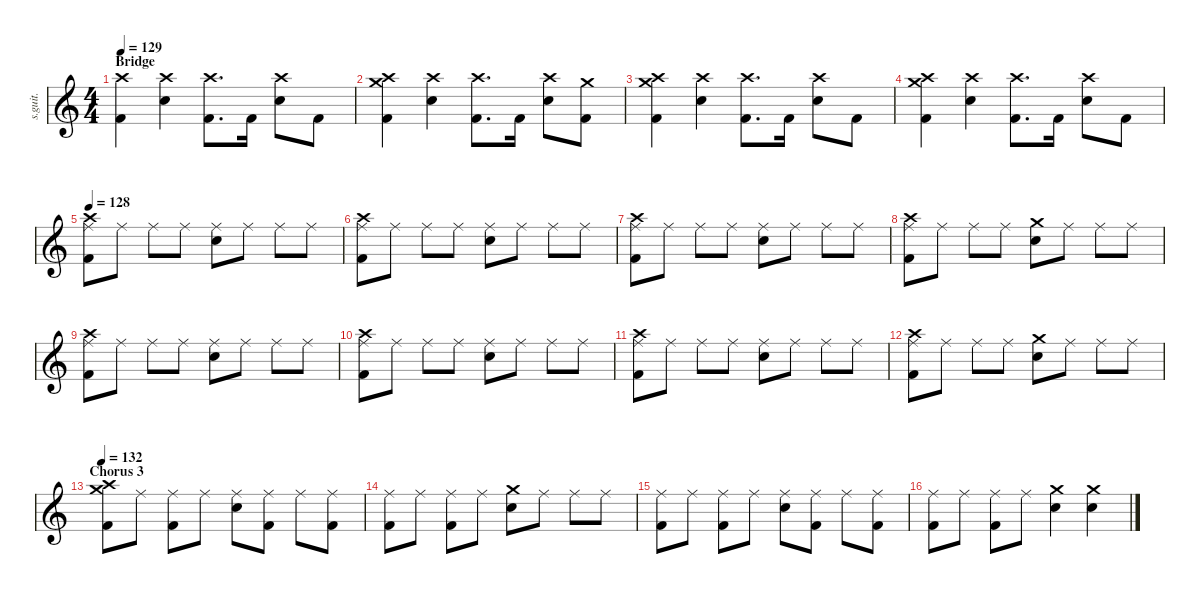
\defaultSystemsLayout 4
\hideDynamics
\bracketExtendMode nobrackets
\track ("John Dolmayan" "s.guit.") {instrument percussion}
\staff {score}
\articulation defaults
\ts (4 4)
\section ("" "Bridge")
\tempo 129
\clef g2
\ks c
("Crash high (hit)" "Kick (hit) 2").4{lyrics (0 "") lyrics (1 "") lyrics (2 "") lyrics (3 "") lyrics (4 "") dy f} ("Crash high (hit)" "Snare (hit) 2").4{lyrics (0 "") lyrics (1 "") lyrics (2 "") lyrics (3 "") lyrics (4 "")} ("Crash high (hit)" "Kick (hit) 2").8{d lyrics (0 "") lyrics (1 "") lyrics (2 "") lyrics (3 "") lyrics (4 "")} "Kick (hit) 2".16{lyrics (0 "") lyrics (1 "") lyrics (2 "") lyrics (3 "") lyrics (4 "")} ("Crash high (hit)" "Snare (hit) 2").8{lyrics (0 "") lyrics (1 "") lyrics (2 "") lyrics (3 "") lyrics (4 "")} "Kick (hit) 2".8{lyrics (0 "") lyrics (1 "") lyrics (2 "") lyrics (3 "") lyrics (4 "")} |
("Crash medium (hit)" "Crash high (hit)" "Kick (hit) 2").4{lyrics (0 "") lyrics (1 "") lyrics (2 "") lyrics (3 "") lyrics (4 "")} ("Crash high (hit)" "Snare (hit) 2").4{lyrics (0 "") lyrics (1 "") lyrics (2 "") lyrics (3 "") lyrics (4 "")} ("Crash high (hit)" "Kick (hit) 2").8{d lyrics (0 "") lyrics (1 "") lyrics (2 "") lyrics (3 "") lyrics (4 "")} "Kick (hit) 2".16{lyrics (0 "") lyrics (1 "") lyrics (2 "") lyrics (3 "") lyrics (4 "")} ("Crash high (hit)" "Snare (hit) 2").8{lyrics (0 "") lyrics (1 "") lyrics (2 "") lyrics (3 "") lyrics (4 "")} ("Crash medium (hit)" "Kick (hit) 2").8{lyrics (0 "") lyrics (1 "") lyrics (2 "") lyrics (3 "") lyrics (4 "")} |
("Crash medium (hit)" "Crash high (hit)" "Kick (hit) 2").4{lyrics (0 "") lyrics (1 "") lyrics (2 "") lyrics (3 "") lyrics (4 "")} ("Crash high (hit)" "Snare (hit) 2").4{lyrics (0 "") lyrics (1 "") lyrics (2 "") lyrics (3 "") lyrics (4 "")} ("Crash high (hit)" "Kick (hit) 2").8{d lyrics (0 "") lyrics (1 "") lyrics (2 "") lyrics (3 "") lyrics (4 "")} "Kick (hit) 2".16{lyrics (0 "") lyrics (1 "") lyrics (2 "") lyrics (3 "") lyrics (4 "")} ("Crash high (hit)" "Snare (hit) 2").8{lyrics (0 "") lyrics (1 "") lyrics (2 "") lyrics (3 "") lyrics (4 "")} "Kick (hit) 2".8{lyrics (0 "") lyrics (1 "") lyrics (2 "") lyrics (3 "") lyrics (4 "")} |
("Crash medium (hit)" "Crash high (hit)" "Kick (hit) 2").4{lyrics (0 "") lyrics (1 "") lyrics (2 "") lyrics (3 "") lyrics (4 "")} ("Crash high (hit)" "Snare (hit) 2").4{lyrics (0 "") lyrics (1 "") lyrics (2 "") lyrics (3 "") lyrics (4 "")} ("Crash high (hit)" "Kick (hit) 2").8{d lyrics (0 "") lyrics (1 "") lyrics (2 "") lyrics (3 "") lyrics (4 "")} "Kick (hit) 2".16{lyrics (0 "") lyrics (1 "") lyrics (2 "") lyrics (3 "") lyrics (4 "")} ("Crash high (hit)" "Snare (hit) 2").8{lyrics (0 "") lyrics (1 "") lyrics (2 "") lyrics (3 "") lyrics (4 "")} "Kick (hit) 2".8{lyrics (0 "") lyrics (1 "") lyrics (2 "") lyrics (3 "") lyrics (4 "")} |
\tempo 128
("Crash high (hit)" "Ride (middle)" "Kick (hit) 2").8{lyrics (0 "") lyrics (1 "") lyrics (2 "") lyrics (3 "") lyrics (4 "") dy fff} "Ride (middle)".8{lyrics (0 "") lyrics (1 "") lyrics (2 "") lyrics (3 "") lyrics (4 "") dy f} "Ride (middle)".8{lyrics (0 "") lyrics (1 "") lyrics (2 "") lyrics (3 "") lyrics (4 "")} "Ride (middle)".8{lyrics (0 "") lyrics (1 "") lyrics (2 "") lyrics (3 "") lyrics (4 "")} ("Ride (middle)" "Snare (hit) 2").8{lyrics (0 "") lyrics (1 "") lyrics (2 "") lyrics (3 "") lyrics (4 "")} "Ride (middle)".8{lyrics (0 "") lyrics (1 "") lyrics (2 "") lyrics (3 "") lyrics (4 "")} "Ride (middle)".8{lyrics (0 "") lyrics (1 "") lyrics (2 "") lyrics (3 "") lyrics (4 "")} "Ride (middle)".8{lyrics (0 "") lyrics (1 "") lyrics (2 "") lyrics (3 "") lyrics (4 "")} |
("Crash high (hit)" "Ride (middle)" "Kick (hit) 2").8{lyrics (0 "") lyrics (1 "") lyrics (2 "") lyrics (3 "") lyrics (4 "") dy fff} "Ride (middle)".8{lyrics (0 "") lyrics (1 "") lyrics (2 "") lyrics (3 "") lyrics (4 "") dy f} "Ride (middle)".8{lyrics (0 "") lyrics (1 "") lyrics (2 "") lyrics (3 "") lyrics (4 "")} "Ride (middle)".8{lyrics (0 "") lyrics (1 "") lyrics (2 "") lyrics (3 "") lyrics (4 "")} ("Ride (middle)" "Snare (hit) 2").8{lyrics (0 "") lyrics (1 "") lyrics (2 "") lyrics (3 "") lyrics (4 "")} "Ride (middle)".8{lyrics (0 "") lyrics (1 "") lyrics (2 "") lyrics (3 "") lyrics (4 "")} "Ride (middle)".8{lyrics (0 "") lyrics (1 "") lyrics (2 "") lyrics (3 "") lyrics (4 "")} "Ride (middle)".8{lyrics (0 "") lyrics (1 "") lyrics (2 "") lyrics (3 "") lyrics (4 "")} |
("Crash high (hit)" "Ride (middle)" "Kick (hit) 2").8{lyrics (0 "") lyrics (1 "") lyrics (2 "") lyrics (3 "") lyrics (4 "") dy fff} "Ride (middle)".8{lyrics (0 "") lyrics (1 "") lyrics (2 "") lyrics (3 "") lyrics (4 "") dy f} "Ride (middle)".8{lyrics (0 "") lyrics (1 "") lyrics (2 "") lyrics (3 "") lyrics (4 "")} "Ride (middle)".8{lyrics (0 "") lyrics (1 "") lyrics (2 "") lyrics (3 "") lyrics (4 "")} ("Ride (middle)" "Snare (hit) 2").8{lyrics (0 "") lyrics (1 "") lyrics (2 "") lyrics (3 "") lyrics (4 "")} "Ride (middle)".8{lyrics (0 "") lyrics (1 "") lyrics (2 "") lyrics (3 "") lyrics (4 "")} "Ride (middle)".8{lyrics (0 "") lyrics (1 "") lyrics (2 "") lyrics (3 "") lyrics (4 "")} "Ride (middle)".8{lyrics (0 "") lyrics (1 "") lyrics (2 "") lyrics (3 "") lyrics (4 "")} |
("Crash high (hit)" "Ride (middle)" "Kick (hit) 2").8{lyrics (0 "") lyrics (1 "") lyrics (2 "") lyrics (3 "") lyrics (4 "") dy fff} "Ride (middle)".8{lyrics (0 "") lyrics (1 "") lyrics (2 "") lyrics (3 "") lyrics (4 "") dy f} "Ride (middle)".8{lyrics (0 "") lyrics (1 "") lyrics (2 "") lyrics (3 "") lyrics (4 "") dy mf} "Ride (middle)".8{lyrics (0 "") lyrics (1 "") lyrics (2 "") lyrics (3 "") lyrics (4 "") dy f} ("Crash medium (hit)" "Snare (hit) 2").8{lyrics (0 "") lyrics (1 "") lyrics (2 "") lyrics (3 "") lyrics (4 "") dy fff} "Ride (middle)".8{lyrics (0 "") lyrics (1 "") lyrics (2 "") lyrics (3 "") lyrics (4 "") dy f} "Ride (middle)".8{lyrics (0 "") lyrics (1 "") lyrics (2 "") lyrics (3 "") lyrics (4 "")} "Ride (middle)".8{lyrics (0 "") lyrics (1 "") lyrics (2 "") lyrics (3 "") lyrics (4 "")} |
("Crash high (hit)" "Ride (middle)" "Kick (hit) 2").8{lyrics (0 "") lyrics (1 "") lyrics (2 "") lyrics (3 "") lyrics (4 "") dy fff} "Ride (middle)".8{lyrics (0 "") lyrics (1 "") lyrics (2 "") lyrics (3 "") lyrics (4 "") dy f} "Ride (middle)".8{lyrics (0 "") lyrics (1 "") lyrics (2 "") lyrics (3 "") lyrics (4 "")} "Ride (middle)".8{lyrics (0 "") lyrics (1 "") lyrics (2 "") lyrics (3 "") lyrics (4 "")} ("Ride (middle)" "Snare (hit) 2").8{lyrics (0 "") lyrics (1 "") lyrics (2 "") lyrics (3 "") lyrics (4 "")} "Ride (middle)".8{lyrics (0 "") lyrics (1 "") lyrics (2 "") lyrics (3 "") lyrics (4 "") dy mf} "Ride (middle)".8{lyrics (0 "") lyrics (1 "") lyrics (2 "") lyrics (3 "") lyrics (4 "") dy f} "Ride (middle)".8{lyrics (0 "") lyrics (1 "") lyrics (2 "") lyrics (3 "") lyrics (4 "")} |
("Crash high (hit)" "Ride (middle)" "Kick (hit) 2").8{lyrics (0 "") lyrics (1 "") lyrics (2 "") lyrics (3 "") lyrics (4 "") dy fff} "Ride (middle)".8{lyrics (0 "") lyrics (1 "") lyrics (2 "") lyrics (3 "") lyrics (4 "") dy f} "Ride (middle)".8{lyrics (0 "") lyrics (1 "") lyrics (2 "") lyrics (3 "") lyrics (4 "")} "Ride (middle)".8{lyrics (0 "") lyrics (1 "") lyrics (2 "") lyrics (3 "") lyrics (4 "")} ("Ride (middle)" "Snare (hit) 2").8{lyrics (0 "") lyrics (1 "") lyrics (2 "") lyrics (3 "") lyrics (4 "")} "Ride (middle)".8{lyrics (0 "") lyrics (1 "") lyrics (2 "") lyrics (3 "") lyrics (4 "")} "Ride (middle)".8{lyrics (0 "") lyrics (1 "") lyrics (2 "") lyrics (3 "") lyrics (4 "")} "Ride (middle)".8{lyrics (0 "") lyrics (1 "") lyrics (2 "") lyrics (3 "") lyrics (4 "")} |
("Crash high (hit)" "Ride (middle)" "Kick (hit) 2").8{lyrics (0 "") lyrics (1 "") lyrics (2 "") lyrics (3 "") lyrics (4 "") dy fff} "Ride (middle)".8{lyrics (0 "") lyrics (1 "") lyrics (2 "") lyrics (3 "") lyrics (4 "") dy f} "Ride (middle)".8{lyrics (0 "") lyrics (1 "") lyrics (2 "") lyrics (3 "") lyrics (4 "")} "Ride (middle)".8{lyrics (0 "") lyrics (1 "") lyrics (2 "") lyrics (3 "") lyrics (4 "")} ("Ride (middle)" "Snare (hit) 2").8{lyrics (0 "") lyrics (1 "") lyrics (2 "") lyrics (3 "") lyrics (4 "")} "Ride (middle)".8{lyrics (0 "") lyrics (1 "") lyrics (2 "") lyrics (3 "") lyrics (4 "")} "Ride (middle)".8{lyrics (0 "") lyrics (1 "") lyrics (2 "") lyrics (3 "") lyrics (4 "")} "Ride (middle)".8{lyrics (0 "") lyrics (1 "") lyrics (2 "") lyrics (3 "") lyrics (4 "")} |
("Crash high (hit)" "Ride (middle)" "Kick (hit) 2").8{lyrics (0 "") lyrics (1 "") lyrics (2 "") lyrics (3 "") lyrics (4 "") dy fff} "Ride (middle)".8{lyrics (0 "") lyrics (1 "") lyrics (2 "") lyrics (3 "") lyrics (4 "") dy f} "Ride (middle)".8{lyrics (0 "") lyrics (1 "") lyrics (2 "") lyrics (3 "") lyrics (4 "")} "Ride (middle)".8{lyrics (0 "") lyrics (1 "") lyrics (2 "") lyrics (3 "") lyrics (4 "")} ("Crash medium (hit)" "Snare (hit) 2").8{lyrics (0 "") lyrics (1 "") lyrics (2 "") lyrics (3 "") lyrics (4 "")} "Ride (middle)".8{lyrics (0 "") lyrics (1 "") lyrics (2 "") lyrics (3 "") lyrics (4 "")} "Ride (middle)".8{lyrics (0 "") lyrics (1 "") lyrics (2 "") lyrics (3 "") lyrics (4 "")} "Ride (middle)".8{lyrics (0 "") lyrics (1 "") lyrics (2 "") lyrics (3 "") lyrics (4 "")} |
\section ("" "Chorus 3")
\tempo 132
("Crash medium (hit)" "Crash high (hit)" "Kick (hit) 2").8{lyrics (0 "") lyrics (1 "") lyrics (2 "") lyrics (3 "") lyrics (4 "")} "Ride (middle)".8{lyrics (0 "") lyrics (1 "") lyrics (2 "") lyrics (3 "") lyrics (4 "")} ("Ride (middle)" "Kick (hit) 2").8{lyrics (0 "") lyrics (1 "") lyrics (2 "") lyrics (3 "") lyrics (4 "")} "Ride (middle)".8{lyrics (0 "") lyrics (1 "") lyrics (2 "") lyrics (3 "") lyrics (4 "")} ("Ride (middle)" "Snare (hit) 2").8{lyrics (0 "") lyrics (1 "") lyrics (2 "") lyrics (3 "") lyrics (4 "")} ("Ride (middle)" "Kick (hit) 2").8{lyrics (0 "") lyrics (1 "") lyrics (2 "") lyrics (3 "") lyrics (4 "")} "Ride (middle)".8{lyrics (0 "") lyrics (1 "") lyrics (2 "") lyrics (3 "") lyrics (4 "")} ("Ride (middle)" "Kick (hit) 2").8{lyrics (0 "") lyrics (1 "") lyrics (2 "") lyrics (3 "") lyrics (4 "")} |
("Ride (middle)" "Kick (hit) 2").8{lyrics (0 "") lyrics (1 "") lyrics (2 "") lyrics (3 "") lyrics (4 "")} "Ride (middle)".8{lyrics (0 "") lyrics (1 "") lyrics (2 "") lyrics (3 "") lyrics (4 "")} ("Ride (middle)" "Kick (hit) 2").8{lyrics (0 "") lyrics (1 "") lyrics (2 "") lyrics (3 "") lyrics (4 "")} "Ride (middle)".8{lyrics (0 "") lyrics (1 "") lyrics (2 "") lyrics (3 "") lyrics (4 "")} ("Crash medium (hit)" "Snare (hit) 2").8{lyrics (0 "") lyrics (1 "") lyrics (2 "") lyrics (3 "") lyrics (4 "")} "Ride (middle)".8{lyrics (0 "") lyrics (1 "") lyrics (2 "") lyrics (3 "") lyrics (4 "")} "Ride (middle)".8{lyrics (0 "") lyrics (1 "") lyrics (2 "") lyrics (3 "") lyrics (4 "")} "Ride (middle)".8{lyrics (0 "") lyrics (1 "") lyrics (2 "") lyrics (3 "") lyrics (4 "")} |
("Ride (middle)" "Kick (hit) 2").8{lyrics (0 "") lyrics (1 "") lyrics (2 "") lyrics (3 "") lyrics (4 "")} "Ride (middle)".8{lyrics (0 "") lyrics (1 "") lyrics (2 "") lyrics (3 "") lyrics (4 "")} ("Ride (middle)" "Kick (hit) 2").8{lyrics (0 "") lyrics (1 "") lyrics (2 "") lyrics (3 "") lyrics (4 "")} "Ride (middle)".8{lyrics (0 "") lyrics (1 "") lyrics (2 "") lyrics (3 "") lyrics (4 "")} ("Ride (middle)" "Snare (hit) 2").8{lyrics (0 "") lyrics (1 "") lyrics (2 "") lyrics (3 "") lyrics (4 "")} ("Ride (middle)" "Kick (hit) 2").8{lyrics (0 "") lyrics (1 "") lyrics (2 "") lyrics (3 "") lyrics (4 "")} "Ride (middle)".8{lyrics (0 "") lyrics (1 "") lyrics (2 "") lyrics (3 "") lyrics (4 "")} ("Ride (middle)" "Kick (hit) 2").8{lyrics (0 "") lyrics (1 "") lyrics (2 "") lyrics (3 "") lyrics (4 "")} |
("Ride (middle)" "Kick (hit) 2").8{lyrics (0 "") lyrics (1 "") lyrics (2 "") lyrics (3 "") lyrics (4 "")} "Ride (middle)".8{lyrics (0 "") lyrics (1 "") lyrics (2 "") lyrics (3 "") lyrics (4 "")} ("Ride (middle)" "Kick (hit) 2").8{lyrics (0 "") lyrics (1 "") lyrics (2 "") lyrics (3 "") lyrics (4 "")} "Ride (middle)".8{lyrics (0 "") lyrics (1 "") lyrics (2 "") lyrics (3 "") lyrics (4 "")} ("Crash medium (hit)" "Snare (hit) 2").4{lyrics (0 "") lyrics (1 "") lyrics (2 "") lyrics (3 "") lyrics (4 "")} ("Crash medium (hit)" "Snare (hit) 2").4{lyrics (0 "") lyrics (1 "") lyrics (2 "") lyrics (3 "") lyrics (4 "")}
